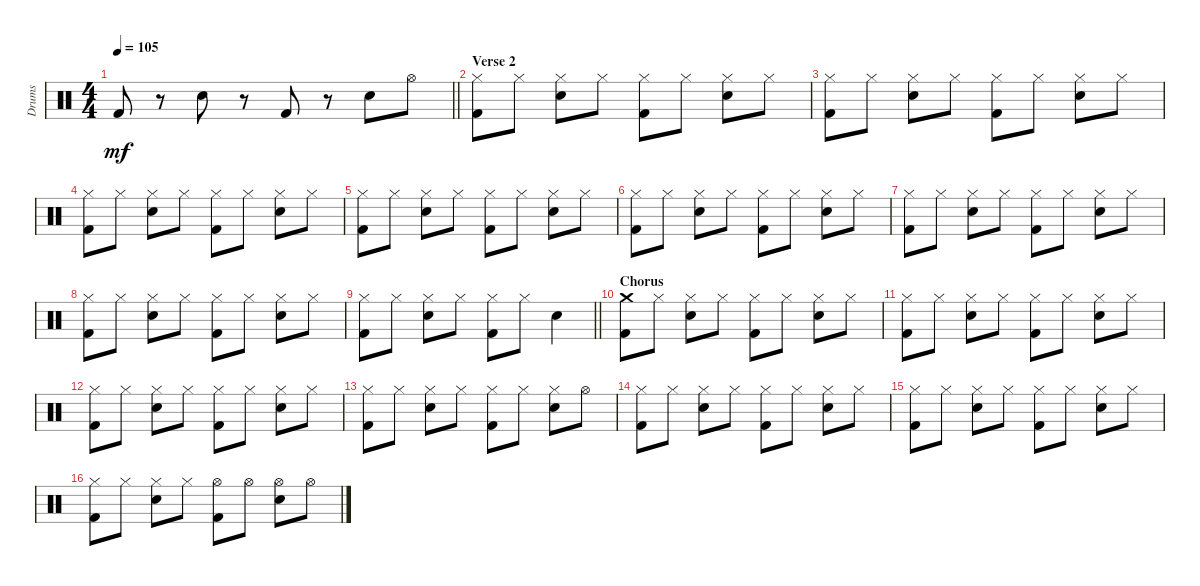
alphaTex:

\track ("Drums" "Drums") {instrument percussion}
\staff {score}
\articulation defaults
\ts (4 4)
\tempo 105
\clef neutral
\barLineRight lightlight
\ks c "Kick (hit) 2".8{dy mf}
r.8 "Snare (hit) 2".8 r.8 "Kick (hit) 2".8 r.8 "Snare (hit) 2".8 "Hi-Hat (open)".8 |
\section ("" "Verse 2")
("Hi-Hat (closed)" "Kick (hit) 2").8 "Hi-Hat (closed)".8 ("Hi-Hat (closed)" "Snare (hit) 2").8 "Hi-Hat (closed)".8 ("Hi-Hat (closed)" "Kick (hit) 2").8 "Hi-Hat (closed)".8 ("Hi-Hat (closed)" "Snare (hit) 2").8 "Hi-Hat (closed)".8 |
("Hi-Hat (closed)" "Kick (hit) 2").8 "Hi-Hat (closed)".8 ("Hi-Hat (closed)" "Snare (hit) 2").8 "Hi-Hat (closed)".8 ("Hi-Hat (closed)" "Kick (hit) 2").8 "Hi-Hat (closed)".8 ("Hi-Hat (closed)" "Snare (hit) 2").8 "Hi-Hat (closed)".8 |
("Hi-Hat (closed)" "Kick (hit) 2").8 "Hi-Hat (closed)".8 ("Hi-Hat (closed)" "Snare (hit) 2").8 "Hi-Hat (closed)".8 ("Hi-Hat (closed)" "Kick (hit) 2").8 "Hi-Hat (closed)".8 ("Hi-Hat (closed)" "Snare (hit) 2").8 "Hi-Hat (closed)".8 |
("Hi-Hat (closed)" "Kick (hit) 2").8 "Hi-Hat (closed)".8 ("Hi-Hat (closed)" "Snare (hit) 2").8 "Hi-Hat (closed)".8 ("Hi-Hat (closed)" "Kick (hit) 2").8 "Hi-Hat (closed)".8 ("Hi-Hat (closed)" "Snare (hit) 2").8 "Hi-Hat (closed)".8 |
("Hi-Hat (closed)" "Kick (hit) 2").8 "Hi-Hat (closed)".8 ("Hi-Hat (closed)" "Snare (hit) 2").8 "Hi-Hat (closed)".8 ("Hi-Hat (closed)" "Kick (hit) 2").8 "Hi-Hat (closed)".8 ("Hi-Hat (closed)" "Snare (hit) 2").8 "Hi-Hat (closed)".8 |
("Hi-Hat (closed)" "Kick (hit) 2").8 "Hi-Hat (closed)".8 ("Hi-Hat (closed)" "Snare (hit) 2").8 "Hi-Hat (closed)".8 ("Hi-Hat (closed)" "Kick (hit) 2").8 "Hi-Hat (closed)".8 ("Hi-Hat (closed)" "Snare (hit) 2").8 "Hi-Hat (closed)".8 |
("Hi-Hat (closed)" "Kick (hit) 2").8 "Hi-Hat (closed)".8 ("Hi-Hat (closed)" "Snare (hit) 2").8 "Hi-Hat (closed)".8 ("Hi-Hat (closed)" "Kick (hit) 2").8 "Hi-Hat (closed)".8 ("Hi-Hat (closed)" "Snare (hit) 2").8 "Hi-Hat (closed)".8 |
\barLineRight lightlight
("Hi-Hat (closed)" "Kick (hit) 2").8 "Hi-Hat (closed)".8 ("Hi-Hat (closed)" "Snare (hit) 2").8 "Hi-Hat (closed)".8 ("Hi-Hat (closed)" "Kick (hit) 2").8 "Hi-Hat (closed)".8 "Snare (hit) 2".4 |
\section ("" "Chorus")
("Crash medium (hit)" "Kick (hit) 2").8 "Hi-Hat (closed)".8 ("Hi-Hat (closed)" "Snare (hit) 2").8 "Hi-Hat (closed)".8 ("Hi-Hat (closed)" "Kick (hit) 2").8 "Hi-Hat (closed)".8 ("Hi-Hat (closed)" "Snare (hit) 2").8 "Hi-Hat (closed)".8 |
("Hi-Hat (closed)" "Kick (hit) 2").8 "Hi-Hat (closed)".8 ("Hi-Hat (closed)" "Snare (hit) 2").8 "Hi-Hat (closed)".8 ("Hi-Hat (closed)" "Kick (hit) 2").8 "Hi-Hat (closed)".8 ("Hi-Hat (closed)" "Snare (hit) 2").8 "Hi-Hat (closed)".8 |
("Hi-Hat (closed)" "Kick (hit) 2").8 "Hi-Hat (closed)".8 ("Hi-Hat (closed)" "Snare (hit) 2").8 "Hi-Hat (closed)".8 ("Hi-Hat (closed)" "Kick (hit) 2").8 "Hi-Hat (closed)".8 ("Hi-Hat (closed)" "Snare (hit) 2").8 "Hi-Hat (closed)".8 |
("Hi-Hat (closed)" "Kick (hit) 2").8 "Hi-Hat (closed)".8 ("Hi-Hat (closed)" "Snare (hit) 2").8 "Hi-Hat (closed)".8 ("Hi-Hat (closed)" "Kick (hit) 2").8 "Hi-Hat (closed)".8 ("Hi-Hat (closed)" "Snare (hit) 2").8 "Hi-Hat (open)".8 |
("Hi-Hat (closed)" "Kick (hit) 2").8 "Hi-Hat (closed)".8 ("Hi-Hat (closed)" "Snare (hit) 2").8 "Hi-Hat (closed)".8 ("Hi-Hat (closed)" "Kick (hit) 2").8 "Hi-Hat (closed)".8 ("Hi-Hat (closed)" "Snare (hit) 2").8 "Hi-Hat (closed)".8 |
("Hi-Hat (closed)" "Kick (hit) 2").8 "Hi-Hat (closed)".8 ("Hi-Hat (closed)" "Snare (hit) 2").8 "Hi-Hat (closed)".8 ("Hi-Hat (closed)" "Kick (hit) 2").8 "Hi-Hat (closed)".8 ("Hi-Hat (closed)" "Snare (hit) 2").8 "Hi-Hat (closed)".8 |
("Hi-Hat (closed)" "Kick (hit) 2").8 "Hi-Hat (closed)".8 ("Hi-Hat (closed)" "Snare (hit) 2").8 "Hi-Hat (closed)".8 ("Hi-Hat (open)" "Kick (hit) 2").8 "Hi-Hat (open)".8 ("Hi-Hat (open)" "Snare (hit) 2").8 "Hi-Hat (open)".8
